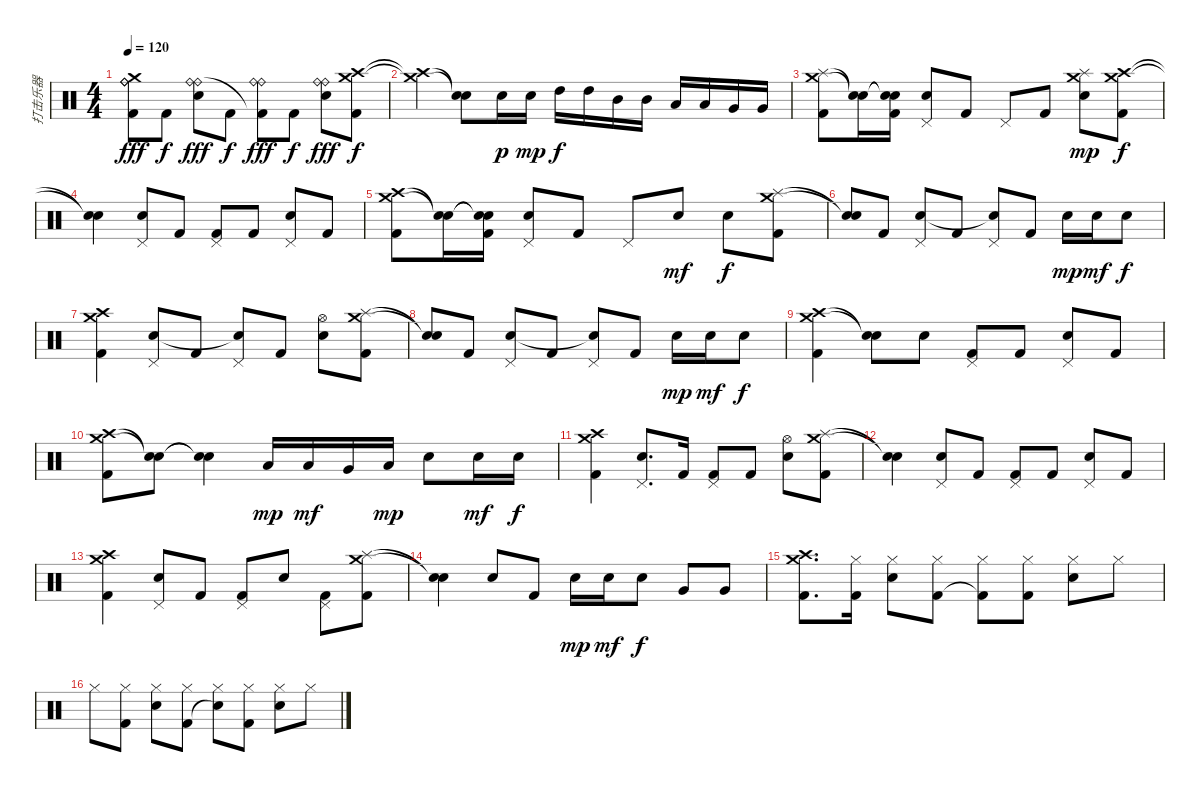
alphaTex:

\track ("打击乐器" "打击乐器") {instrument percussion}
\staff {score}
\articulation defaults
\ts (4 4)
\tempo 120
\clef neutral
\ks c
("Ride (bell)" "Crash medium (hit)" "Ride (bell)" "Kick (hit) 2").8{dy fff} "Kick (hit) 2".8{dy f} ("Ride (bell)" "Metronome (bell)" "Ride (bell)").8{dy fff} "Kick (hit) 2".8{dy f} ("Ride (bell)" "Ride (bell)" "Kick (hit) 2"{t}).8{dy fff} "Kick (hit) 2".8{dy f} ("Ride (bell)" "Metronome (bell)" "Ride (bell)").8{dy fff} ("Crash high (hit)" "Crash medium (hit)" "Kick (hit) 2").8{dy f} |
("Crash high (hit)"{t} "Crash medium (hit)"{t}).4 ("Snare (hit)"{t} "Snare (hit)"{t}).8 "Metronome (bell)".16{dy p} "Metronome (bell)".16{dy mp} "High Tom (hit)".16{dy f} "High Tom (hit)".16 "Mid Tom (hit)".16 "Mid Tom (hit)".16 "Low Tom (hit)".16 "Low Tom (hit)".16 "Very Low Tom (hit)".16 "Very Low Tom (hit)".16 |
("Crash medium (hit)" "Splash (hit)" "Kick (hit) 2").8 ("Snare (hit)"{t} "Snare (hit)"{t}).16 ("Snare (hit)"{t} "Snare (hit)"{t} "Kick (hit) 2").16 ("Pedal Hi-Hat (hit)" "Metronome (bell)").8 "Kick (hit) 2".8 "Pedal Hi-Hat (hit)".8 "Kick (hit) 2".8 ("Splash (hit)" "Crash medium (hit)" "Metronome (bell)").8{dy mp} ("Crash high (hit)" "Crash medium (hit)" "Kick (hit) 2").8{dy f} |
("Snare (hit)"{t} "Snare (hit)"{t}).4 ("Pedal Hi-Hat (hit)" "Metronome (bell)").8 "Kick (hit) 2".8 ("Pedal Hi-Hat (hit)" "Kick (hit) 2").8 "Kick (hit) 2".8 ("Pedal Hi-Hat (hit)" "Metronome (bell)").8 "Kick (hit) 2".8 |
("Crash high (hit)" "Crash medium (hit)" "Kick (hit) 2").8 ("Snare (hit)"{t} "Snare (hit)"{t}).16 ("Snare (hit)"{t} "Snare (hit)"{t} "Kick (hit) 2").16 ("Pedal Hi-Hat (hit)" "Metronome (bell)").8 "Kick (hit) 2".8 "Pedal Hi-Hat (hit)".8 "Metronome (bell)".8{dy mf} "Metronome (bell)".8{dy f} ("Splash (hit)" "Crash medium (hit)" "Kick (hit) 2").8 |
("Snare (hit)"{t} "Snare (hit)"{t}).8 "Kick (hit) 2".8 ("Pedal Hi-Hat (hit)" "Metronome (bell)").8 "Kick (hit) 2".8 ("Pedal Hi-Hat (hit)" "Snare (hit)"{t}).8 "Kick (hit) 2".8 "Metronome (bell)".16{dy mp} "Metronome (bell)".16{dy mf} "Metronome (bell)".8{dy f} |
("Crash medium (hit)" "Crash high (hit)" "Kick (hit) 2").4 ("Pedal Hi-Hat (hit)" "Metronome (bell)").8 "Kick (hit) 2".8 ("Pedal Hi-Hat (hit)" "Snare (hit)"{t}).8 "Kick (hit) 2".8 ("Hi-Hat (open)" "Metronome (bell)").8 ("Crash medium (hit)" "Splash (hit)" "Kick (hit) 2").8 |
("Snare (hit)"{t} "Snare (hit)"{t}).8 "Kick (hit) 2".8 ("Pedal Hi-Hat (hit)" "Metronome (bell)").8 "Kick (hit) 2".8 ("Pedal Hi-Hat (hit)" "Snare (hit)"{t}).8 "Kick (hit) 2".8 "Metronome (bell)".16{dy mp} "Metronome (bell)".16{dy mf} "Metronome (bell)".8{dy f} |
("Crash high (hit)" "Crash medium (hit)" "Kick (hit) 2").4 ("Snare (hit)"{t} "Snare (hit)"{t}).8 "Metronome (bell)".8 ("Pedal Hi-Hat (hit)" "Kick (hit) 2").8 "Kick (hit) 2".8 ("Pedal Hi-Hat (hit)" "Metronome (bell)").8 "Kick (hit) 2".8 |
("Crash high (hit)" "Crash medium (hit)" "Kick (hit) 2").8 ("Snare (hit)"{t} "Snare (hit)"{t}).8 ("Snare (hit)"{t} "Snare (hit)"{t}).4 "Low Tom (hit)".16{dy mp} "Low Tom (hit)".16{dy mf} "Very Low Tom (hit)".16 "Low Tom (hit)".16{dy mp} "Metronome (bell)".8 "Metronome (bell)".16{dy mf} "Metronome (bell)".16{dy f} |
("Crash medium (hit)" "Crash high (hit)" "Kick (hit) 2").4 ("Pedal Hi-Hat (hit)" "Metronome (bell)").8{d} "Kick (hit) 2".16 ("Pedal Hi-Hat (hit)" "Kick (hit) 2").8 "Kick (hit) 2".8 ("Hi-Hat (open)" "Metronome (bell)").8 ("Crash medium (hit)" "Splash (hit)" "Kick (hit) 2").8 |
("Snare (hit)"{t} "Snare (hit)"{t}).4 ("Pedal Hi-Hat (hit)" "Metronome (bell)").8 "Kick (hit) 2".8 ("Pedal Hi-Hat (hit)" "Kick (hit) 2").8 "Kick (hit) 2".8 ("Pedal Hi-Hat (hit)" "Metronome (bell)").8 "Kick (hit) 2".8 |
("Crash high (hit)" "Crash medium (hit)" "Kick (hit) 2").4 ("Pedal Hi-Hat (hit)" "Metronome (bell)").8 "Kick (hit) 2".8 ("Pedal Hi-Hat (hit)" "Kick (hit) 2").8 "Metronome (bell)".8 ("Pedal Hi-Hat (hit)" "Kick (hit) 2").8 ("Crash medium (hit)" "Splash (hit)" "Kick (hit) 2").8 |
("Snare (hit)"{t} "Snare (hit)"{t}).4 "Metronome (bell)".8 "Kick (hit) 2".8 "Metronome (bell)".16{dy mp} "Metronome (bell)".16{dy mf} "Metronome (bell)".8{dy f} "Very Low Tom (hit)".8 "Very Low Tom (hit)".8 |
("Crash high (hit)" "Crash medium (hit)" "Kick (hit) 2").8{d} ("Hi-Hat (closed)" "Kick (hit) 2").16 ("Hi-Hat (closed)" "Metronome (bell)").8 ("Hi-Hat (closed)" "Kick (hit) 2").8 ("Hi-Hat (closed)" "Kick (hit) 2"{t}).8 ("Hi-Hat (closed)" "Kick (hit) 2").8 ("Hi-Hat (closed)" "Metronome (bell)").8 "Hi-Hat (closed)".8 |
"Hi-Hat (closed)".8 ("Hi-Hat (closed)" "Kick (hit) 2").8 ("Hi-Hat (closed)" "Metronome (bell)").8 ("Hi-Hat (closed)" "Kick (hit) 2").8 ("Hi-Hat (closed)" "Metronome (bell)"{t}).8 ("Hi-Hat (closed)" "Kick (hit) 2").8 ("Hi-Hat (closed)" "Metronome (bell)").8 "Hi-Hat (closed)".8
